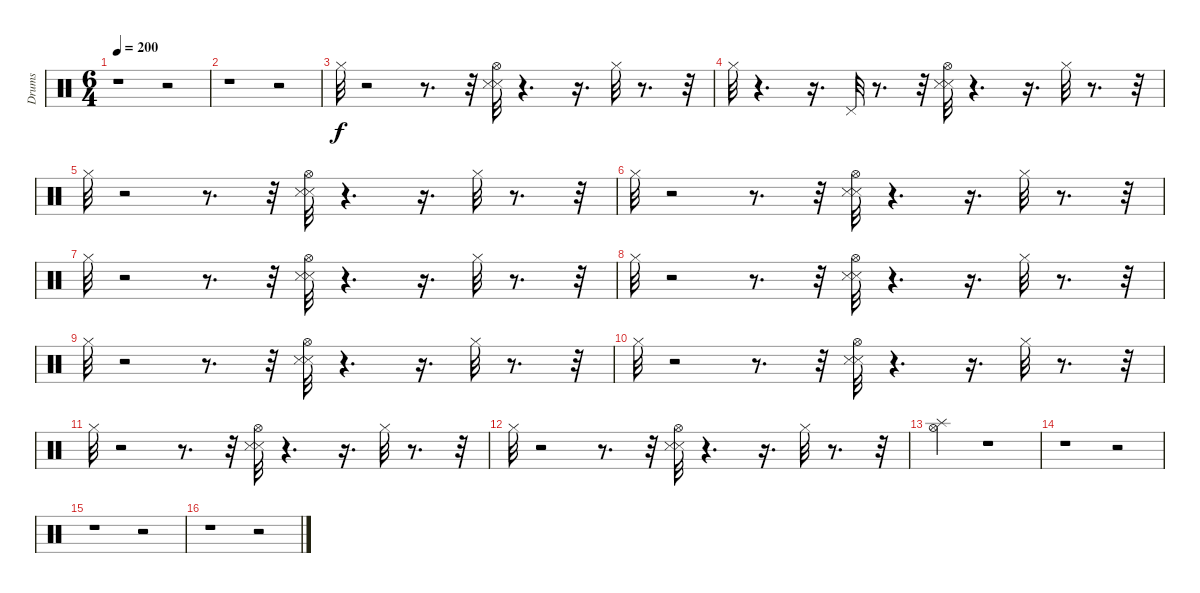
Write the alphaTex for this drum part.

\track ("Drums" "Drums") {instrument percussion}
\staff {score}
\articulation defaults
\ts (6 4)
\tempo 200
\clef neutral
\ks c
r.1{dy f} r.2 |
r.1 r.2 |
"Hi-Hat (closed)".32 r.2 r.8{d} r.32 ("Metronome (hit)" "Snare (side stick) 3" "Hi-Hat (open)").32 r.4{d} r.16{d} "Hi-Hat (closed)".32 r.8{d} r.32 |
"Hi-Hat (closed)".32 r.4{d} r.16{d} "Pedal Hi-Hat (hit)".32 r.8{d} r.32 ("Metronome (hit)" "Snare (side stick) 3" "Hi-Hat (open)").32 r.4{d} r.16{d} "Hi-Hat (closed)".32 r.8{d} r.32 |
"Hi-Hat (closed)".32 r.2 r.8{d} r.32 ("Metronome (hit)" "Snare (side stick) 3" "Hi-Hat (open)").32 r.4{d} r.16{d} "Hi-Hat (closed)".32 r.8{d} r.32 |
"Hi-Hat (closed)".32 r.2 r.8{d} r.32 ("Metronome (hit)" "Snare (side stick) 3" "Hi-Hat (open)").32 r.4{d} r.16{d} "Hi-Hat (closed)".32 r.8{d} r.32 |
"Hi-Hat (closed)".32 r.2 r.8{d} r.32 ("Metronome (hit)" "Snare (side stick) 3" "Hi-Hat (open)").32 r.4{d} r.16{d} "Hi-Hat (closed)".32 r.8{d} r.32 |
"Hi-Hat (closed)".32 r.2 r.8{d} r.32 ("Metronome (hit)" "Snare (side stick) 3" "Hi-Hat (open)").32 r.4{d} r.16{d} "Hi-Hat (closed)".32 r.8{d} r.32 |
"Hi-Hat (closed)".32 r.2 r.8{d} r.32 ("Metronome (hit)" "Snare (side stick) 3" "Hi-Hat (open)").32 r.4{d} r.16{d} "Hi-Hat (closed)".32 r.8{d} r.32 |
"Hi-Hat (closed)".32 r.2 r.8{d} r.32 ("Metronome (hit)" "Snare (side stick) 3" "Hi-Hat (open)").32 r.4{d} r.16{d} "Hi-Hat (closed)".32 r.8{d} r.32 |
"Hi-Hat (closed)".32 r.2 r.8{d} r.32 ("Metronome (hit)" "Snare (side stick) 3" "Hi-Hat (open)").32 r.4{d} r.16{d} "Hi-Hat (closed)".32 r.8{d} r.32 |
"Hi-Hat (closed)".32 r.2 r.8{d} r.32 ("Metronome (hit)" "Snare (side stick) 3" "Hi-Hat (open)").32 r.4{d} r.16{d} "Hi-Hat (closed)".32 r.8{d} r.32 |
("Splash (hit)" "Hi-Hat (open)").2 r.1 |
r.1 r.2 |
r.1 r.2 |
r.1 r.2
